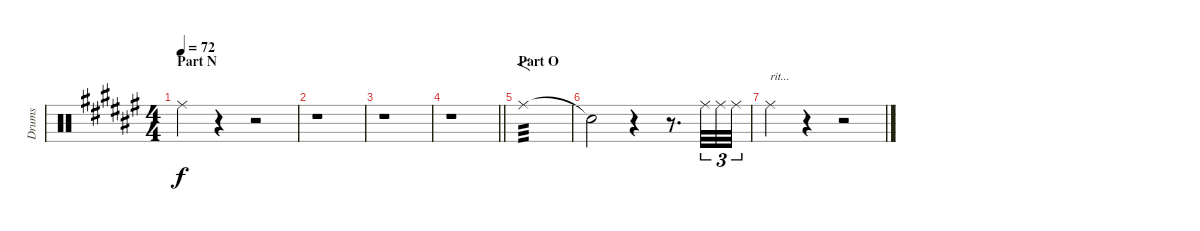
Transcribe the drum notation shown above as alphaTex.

\track ("Drums" "Drums") {instrument percussion}
\staff {score}
\articulation defaults
\ts (4 4)
\section ("" "Part N")
\tempo 72
\clef neutral
\ks f# "Ride (middle)".4{dy f}
r.4 r.2 |
r.1 |
r.1 |
\barLineRight lightlight
r.1 |
\section ("" "Part O")
"Ride (middle)".1{f tp 3} |
"Snare (hit)"{t}.2 r.4 r.8{d} "Ride (middle)".32{tu (3 2)} "Ride (middle)".32{tu (3 2)} "Ride (middle)".32{tu (3 2)} |
"Ride (middle)".4{txt "rit..."} r.4 r.2
